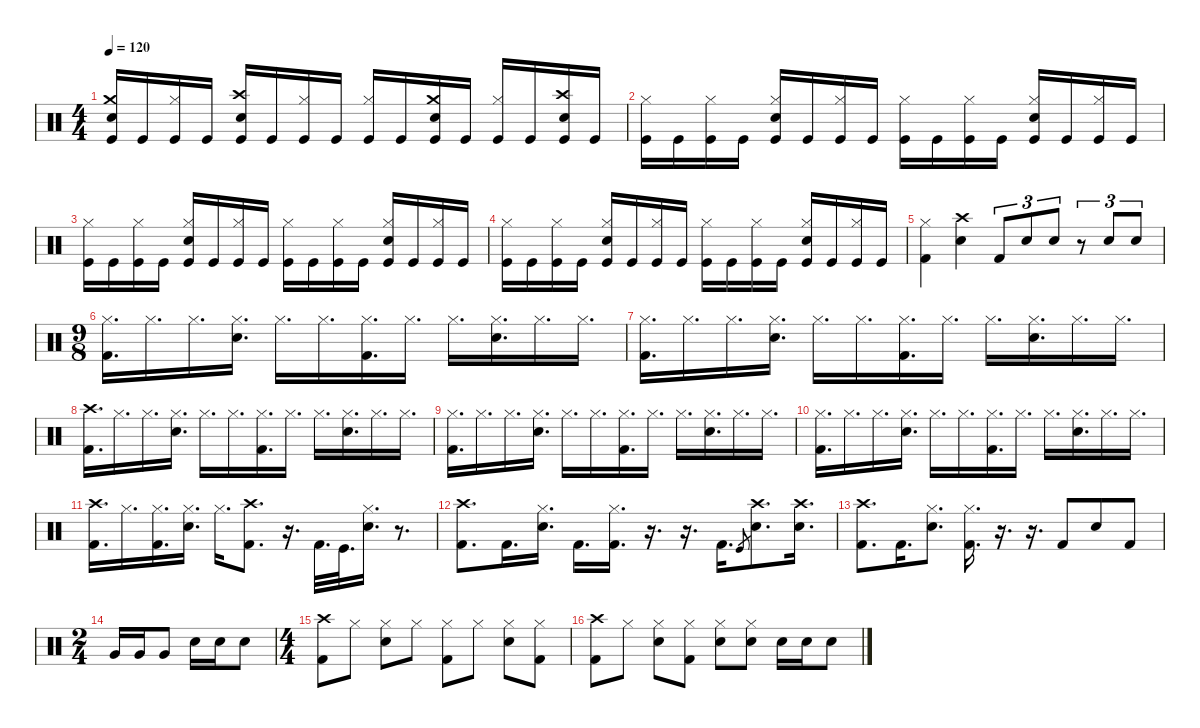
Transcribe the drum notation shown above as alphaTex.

\defaultSystemsLayout 4
\hideDynamics
\bracketExtendMode nobrackets
\singleTrackTrackNamePolicy hidden
\multiTrackTrackNamePolicy hidden
\otherSystemsTrackNameOrientation horizontal
\track ("Ulrich" "drm.") {instrument percussion}
\staff {score}
\articulation defaults
\ts (4 4)
\tempo 120
\clef neutral
\ks c
("Crash medium (hit)" "Kick (hit)" "Snare (hit) 2").16{dy f beam Up} "Kick (hit)".16{dy fff beam Up} ("Hi-Hat (closed)" "Kick (hit)").16{dy f beam Up} "Kick (hit)".16{dy fff beam Up} ("Crash high (hit)" "Kick (hit)" "Snare (hit) 2").16{dy f beam Up} "Kick (hit)".16{dy fff beam Up} ("Hi-Hat (closed)" "Kick (hit)").16{dy f beam Up} "Kick (hit)".16{dy fff beam Up} ("Hi-Hat (closed)" "Kick (hit)").16{dy f beam Up} "Kick (hit)".16{dy fff beam Up} ("Crash medium (hit)" "Kick (hit)" "Snare (hit) 2").16{dy f beam Up} "Kick (hit)".16{dy fff beam Up} ("Hi-Hat (closed)" "Kick (hit)").16{dy f beam Up} "Kick (hit)".16{dy fff beam Up} ("Crash high (hit)" "Kick (hit)" "Snare (hit) 2").16{dy f beam Up} "Kick (hit)".16{dy fff beam Up} |
("Hi-Hat (closed)" "Kick (hit)").16{dy f beam Down} "Kick (hit)".16{dy fff beam Down} ("Hi-Hat (closed)" "Kick (hit)").16{dy f beam Down} "Kick (hit)".16{dy fff beam Down} ("Hi-Hat (closed)" "Kick (hit)" "Snare (hit) 2").16{dy f beam Up} "Kick (hit)".16{dy fff beam Up} ("Hi-Hat (closed)" "Kick (hit)").16{dy f beam Up} "Kick (hit)".16{dy fff beam Up} ("Hi-Hat (closed)" "Kick (hit)").16{dy f beam Down} "Kick (hit)".16{dy fff beam Down} ("Hi-Hat (closed)" "Kick (hit)").16{dy f beam Down} "Kick (hit)".16{dy fff beam Down} ("Hi-Hat (closed)" "Kick (hit)" "Snare (hit) 2").16{dy f beam Up} "Kick (hit)".16{dy fff beam Up} ("Hi-Hat (closed)" "Kick (hit)").16{dy f beam Up} "Kick (hit)".16{dy fff beam Up} |
("Hi-Hat (closed)" "Kick (hit)").16{dy f beam Down} "Kick (hit)".16{dy fff beam Down} ("Hi-Hat (closed)" "Kick (hit)").16{dy f beam Down} "Kick (hit)".16{dy fff beam Down} ("Hi-Hat (closed)" "Kick (hit)" "Snare (hit) 2").16{dy f beam Up} "Kick (hit)".16{dy fff beam Up} ("Hi-Hat (closed)" "Kick (hit)").16{dy f beam Up} "Kick (hit)".16{dy fff beam Up} ("Hi-Hat (closed)" "Kick (hit)").16{dy f beam Down} "Kick (hit)".16{dy fff beam Down} ("Hi-Hat (closed)" "Kick (hit)").16{dy f beam Down} "Kick (hit)".16{dy fff beam Down} ("Hi-Hat (closed)" "Kick (hit)" "Snare (hit) 2").16{dy f beam Up} "Kick (hit)".16{dy fff beam Up} ("Hi-Hat (closed)" "Kick (hit)").16{dy f beam Up} "Kick (hit)".16{dy fff beam Up} |
("Hi-Hat (closed)" "Kick (hit)").16{dy f beam Down} "Kick (hit)".16{dy fff beam Down} ("Hi-Hat (closed)" "Kick (hit)").16{dy f beam Down} "Kick (hit)".16{dy fff beam Down} ("Hi-Hat (closed)" "Kick (hit)" "Snare (hit) 2").16{dy f beam Up} "Kick (hit)".16{dy fff beam Up} ("Hi-Hat (closed)" "Kick (hit)").16{dy f beam Up} "Kick (hit)".16{dy fff beam Up} ("Hi-Hat (closed)" "Kick (hit)").16{dy f beam Down} "Kick (hit)".16{dy fff beam Down} ("Hi-Hat (closed)" "Kick (hit)").16{dy f beam Down} "Kick (hit)".16{dy fff beam Down} ("Hi-Hat (closed)" "Kick (hit)" "Snare (hit) 2").16{dy f beam Up} "Kick (hit)".16{dy fff beam Up} ("Hi-Hat (closed)" "Kick (hit)").16{dy f beam Up} "Kick (hit)".16{beam Up} |
("Hi-Hat (closed)" "Kick (hit) 2").4{beam Down} ("Crash high (hit)" "Snare (hit) 2").4{beam Down} "Kick (hit) 2".8{tu (3 2) dy fff beam Up} "Snare (hit) 2".8{tu (3 2) beam Up} "Snare (hit) 2".8{tu (3 2) beam Up} r.8{tu (3 2) beam Up} "Snare (hit) 2".8{tu (3 2) beam Down} "Snare (hit) 2".8{tu (3 2) dy f beam Down} |
\ts (9 8)
("Hi-Hat (closed)" "Kick (hit) 2").16{d beam Down} "Hi-Hat (closed)".16{d beam Down} "Hi-Hat (closed)".16{d beam Down} ("Hi-Hat (closed)" "Snare (hit) 2").16{d beam Down} "Hi-Hat (closed)".16{d beam Down} "Hi-Hat (closed)".16{d beam Down} ("Hi-Hat (closed)" "Kick (hit) 2").16{d beam Down} "Hi-Hat (closed)".16{d beam Down} "Hi-Hat (closed)".16{d beam Down} ("Hi-Hat (closed)" "Snare (hit) 2").16{d beam Down} "Hi-Hat (closed)".16{d beam Down} "Hi-Hat (closed)".16{d beam Down} |
("Hi-Hat (closed)" "Kick (hit) 2").16{d beam Down} "Hi-Hat (closed)".16{d beam Down} "Hi-Hat (closed)".16{d beam Down} ("Hi-Hat (closed)" "Snare (hit) 2").16{d beam Down} "Hi-Hat (closed)".16{d beam Down} "Hi-Hat (closed)".16{d beam Down} ("Hi-Hat (closed)" "Kick (hit) 2").16{d beam Down} "Hi-Hat (closed)".16{d beam Down} "Hi-Hat (closed)".16{d beam Down} ("Hi-Hat (closed)" "Snare (hit) 2").16{d beam Down} "Hi-Hat (closed)".16{d beam Down} "Hi-Hat (closed)".16{d beam Down} |
("Crash high (hit)" "Kick (hit) 2").16{d beam Down} "Hi-Hat (closed)".16{d beam Down} "Hi-Hat (closed)".16{d beam Down} ("Hi-Hat (closed)" "Snare (hit) 2").16{d beam Down} "Hi-Hat (closed)".16{d beam Down} "Hi-Hat (closed)".16{d beam Down} ("Hi-Hat (closed)" "Kick (hit) 2").16{d beam Down} "Hi-Hat (closed)".16{d beam Down} "Hi-Hat (closed)".16{d beam Down} ("Hi-Hat (closed)" "Snare (hit) 2").16{d beam Down} "Hi-Hat (closed)".16{d beam Down} "Hi-Hat (closed)".16{d beam Down} |
("Hi-Hat (closed)" "Kick (hit) 2").16{d beam Down} "Hi-Hat (closed)".16{d beam Down} "Hi-Hat (closed)".16{d beam Down} ("Hi-Hat (closed)" "Snare (hit) 2").16{d beam Down} "Hi-Hat (closed)".16{d beam Down} "Hi-Hat (closed)".16{d beam Down} ("Hi-Hat (closed)" "Kick (hit) 2").16{d beam Down} "Hi-Hat (closed)".16{d beam Down} "Hi-Hat (closed)".16{d beam Down} ("Hi-Hat (closed)" "Snare (hit) 2").16{d beam Down} "Hi-Hat (closed)".16{d beam Down} "Hi-Hat (closed)".16{d beam Down} |
("Hi-Hat (closed)" "Kick (hit) 2").16{d beam Down} "Hi-Hat (closed)".16{d beam Down} "Hi-Hat (closed)".16{d beam Down} ("Hi-Hat (closed)" "Snare (hit) 2").16{d beam Down} "Hi-Hat (closed)".16{d beam Down} "Hi-Hat (closed)".16{d beam Down} ("Hi-Hat (closed)" "Kick (hit) 2").16{d beam Down} "Hi-Hat (closed)".16{d beam Down} "Hi-Hat (closed)".16{d beam Down} ("Hi-Hat (closed)" "Snare (hit) 2").16{d beam Down} "Hi-Hat (closed)".16{d beam Down} "Hi-Hat (closed)".16{d beam Down} |
("Crash high (hit)" "Kick (hit) 2").16{d beam Down} "Hi-Hat (closed)".16{d beam Down} ("Hi-Hat (closed)" "Kick (hit) 2").16{d beam Down} ("Hi-Hat (closed)" "Snare (hit) 2").16{d beam Down} "Hi-Hat (closed)".16{d beam Down} ("Crash high (hit)" "Kick (hit) 2").8{d beam Down} r.16{d beam Down} "Kick (hit) 2".32{d beam Down} "Kick (hit)".32{d dy fff beam Down} ("Hi-Hat (closed)" "Snare (hit) 2").16{d dy f beam Down} r.8{d beam Down} |
("Crash high (hit)" "Kick (hit) 2").8{d beam Down} "Kick (hit) 2".16{d beam Down} ("Hi-Hat (closed)" "Snare (hit) 2").16{d beam Down} "Kick (hit) 2".16{d beam Down} ("Hi-Hat (closed)" "Kick (hit) 2").16{d beam Down} r.16{d beam Down} r.16{d beam Down} "Kick (hit) 2".16{d dy fff beam Down} "Kick (hit)".8{gr dy ff beam Up} ("Crash high (hit)" "Snare (hit) 2").8{d dy f beam Down} ("Crash high (hit)" "Snare (hit) 2").16{d beam Down} |
("Crash high (hit)" "Kick (hit) 2").8{d beam Down} "Kick (hit) 2".16{d beam Down} ("Hi-Hat (closed)" "Snare (hit) 2").8{d beam Down} ("Hi-Hat (closed)" "Kick (hit) 2").16{d beam Down} r.16{d beam Down} r.16{d beam Down} "Kick (hit) 2".8{beam Up} "Snare (hit) 2".8{beam Up} "Kick (hit) 2".8{beam Up} |
\ts (2 4)
"Very Low Tom (hit)".16{beam Up} "Very Low Tom (hit)".16{beam Up} "Very Low Tom (hit)".8{beam Up} "Snare (hit) 2".16{beam Down} "Snare (hit) 2".16{beam Down} "Snare (hit) 2".8{beam Down} |
\ts (4 4)
("Crash high (hit)" "Kick (hit) 2").8{beam Down} "Hi-Hat (closed)".8{beam Down} ("Hi-Hat (closed)" "Snare (hit) 2").8{beam Down} "Hi-Hat (closed)".8{beam Down} ("Hi-Hat (closed)" "Kick (hit) 2").8{beam Down} "Hi-Hat (closed)".8{beam Down} ("Hi-Hat (closed)" "Snare (hit) 2").8{beam Down} ("Hi-Hat (closed)" "Kick (hit) 2").8{beam Down} |
("Crash high (hit)" "Kick (hit) 2").8{beam Down} "Hi-Hat (closed)".8{beam Down} ("Hi-Hat (closed)" "Snare (hit) 2").8{beam Down} ("Hi-Hat (closed)" "Kick (hit) 2").8{beam Down} ("Hi-Hat (closed)" "Snare (hit) 2").8{beam Down} ("Hi-Hat (closed)" "Snare (hit) 2").8{beam Down} "Snare (hit) 2".16{beam Down} "Snare (hit) 2".16{beam Down} "Snare (hit) 2".8{beam Down}
